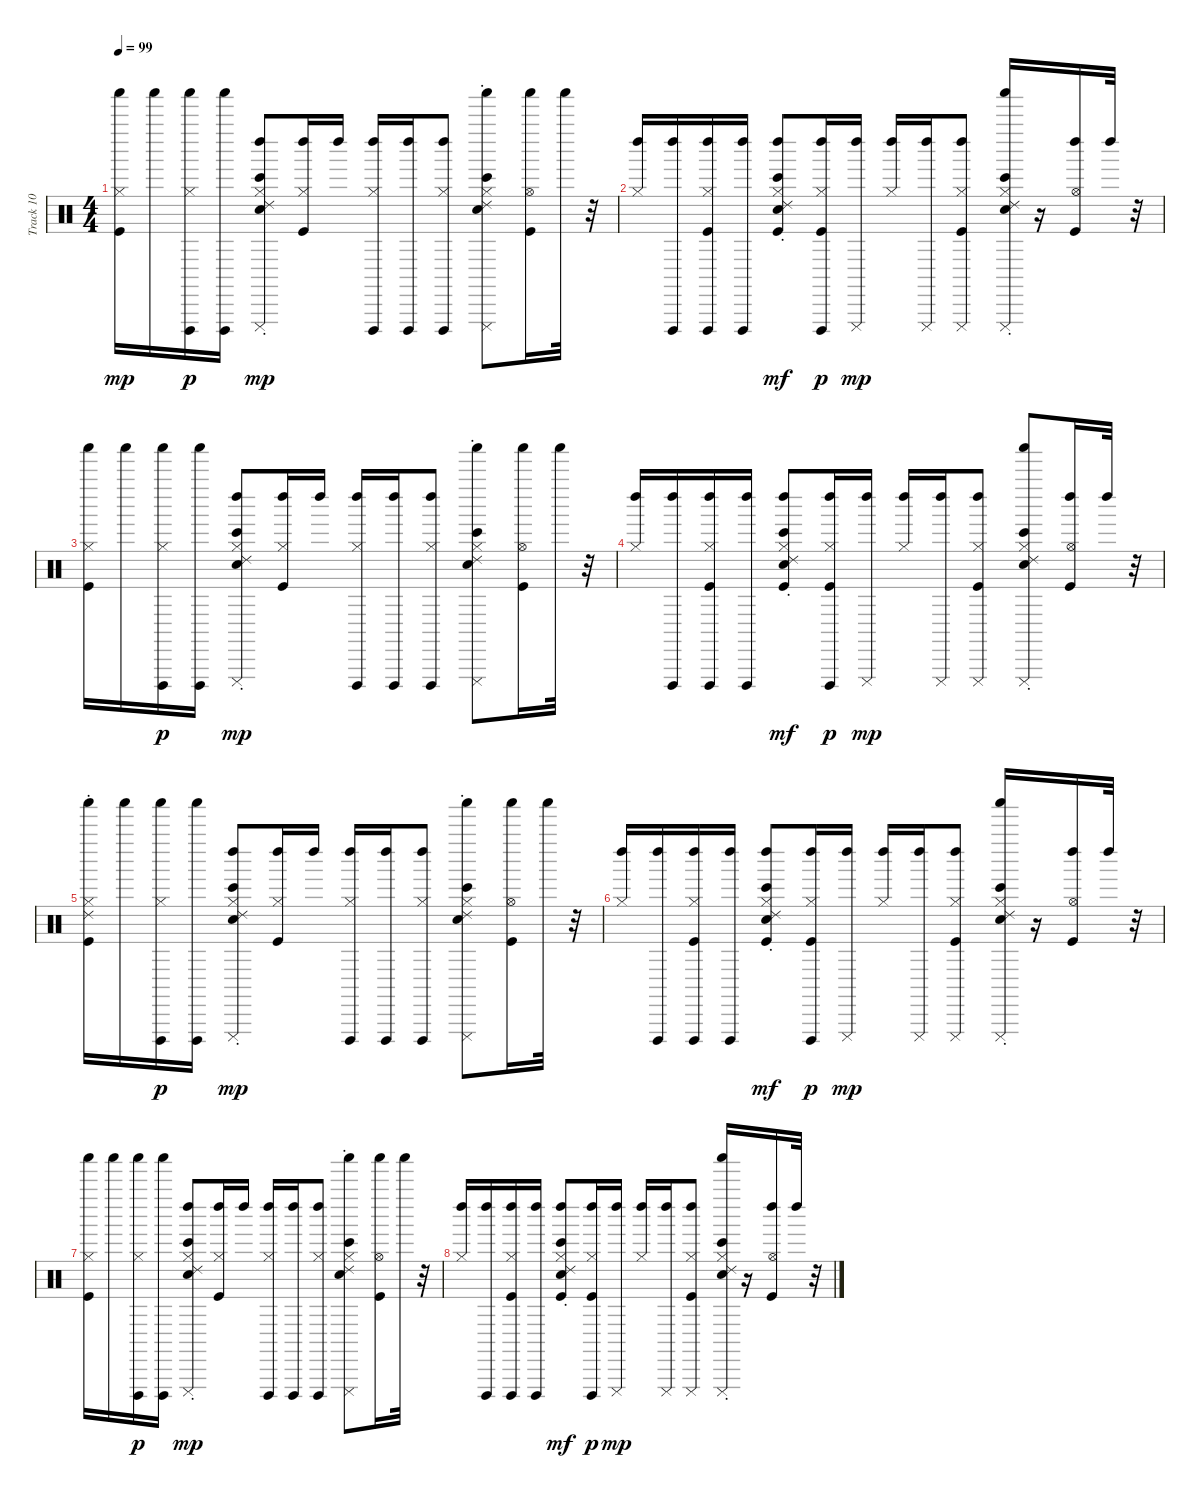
\track ("Track 10" "Track 10") {instrument percussion}
\staff {score}
\articulation defaults
\ts (4 4)
\tempo 99
\clef neutral
\ks c
("Kick (hit)" "Hi-Hat (closed)" "Shaker (hit)").16{dy mp} "Shaker (hit)".16 ("Hi-Hat (closed)" "Cuica (open)" "Shaker (hit)").16{dy p} ("Cuica (open)" "Shaker (hit)").16 ("Bongo High (hit)" "Ride (choke) 2" "Electric Snare (hit)" "Hi-Hat (closed)" "Left Maraca (hit)" "Cuica (mute)").8{dy mp} ("Kick (hit)" "Hi-Hat (closed)" "Left Maraca (hit)").16 "Left Maraca (hit)".16 ("Hi-Hat (closed)" "Left Maraca (hit)" "Cuica (open)").16 ("Cuica (open)" "Left Maraca (hit)").16 ("Hi-Hat (closed)" "Left Maraca (hit)" "Cuica (open)").8 ("Bongo High (hit)" "Ride (choke) 2" "Electric Snare (hit)" "Hi-Hat (closed)" "Cuica (mute)" "Shaker (hit)").8 ("Kick (hit)" "Hi-Hat (open)" "Shaker (hit)").16 "Shaker (hit)".32 r.32 |
("Hi-Hat (closed)" "Left Maraca (hit)").16 ("Cuica (open)" "Left Maraca (hit)").16 ("Kick (hit)" "Hi-Hat (closed)" "Left Maraca (hit)" "Cuica (open)").16 ("Cuica (open)" "Left Maraca (hit)").16 ("Bongo High (hit)" "Ride (choke) 2" "Kick (hit)" "Electric Snare (hit)" "Hi-Hat (closed)" "Left Maraca (hit)").8{dy mf} ("Kick (hit)" "Hi-Hat (closed)" "Left Maraca (hit)" "Cuica (open)").16{dy p} ("Cuica (mute)" "Left Maraca (hit)").16{dy mp} ("Hi-Hat (closed)" "Left Maraca (hit)").16 ("Cuica (mute)" "Left Maraca (hit)").16 ("Kick (hit)" "Hi-Hat (closed)" "Left Maraca (hit)" "Cuica (mute)").8 ("Bongo High (hit)" "Ride (choke) 2" "Electric Snare (hit)" "Hi-Hat (closed)" "Cuica (mute)" "Shaker (hit)").16 r.16 ("Kick (hit)" "Hi-Hat (open)" "Left Maraca (hit)").16 "Left Maraca (hit)".32 r.32 |
("Kick (hit)" "Hi-Hat (closed)" "Shaker (hit)").16 "Shaker (hit)".16 ("Hi-Hat (closed)" "Cuica (open)" "Shaker (hit)").16{dy p} ("Cuica (open)" "Shaker (hit)").16 ("Bongo High (hit)" "Ride (choke) 2" "Electric Snare (hit)" "Hi-Hat (closed)" "Left Maraca (hit)" "Cuica (mute)").8{dy mp} ("Kick (hit)" "Hi-Hat (closed)" "Left Maraca (hit)").16 "Left Maraca (hit)".16 ("Hi-Hat (closed)" "Left Maraca (hit)" "Cuica (open)").16 ("Cuica (open)" "Left Maraca (hit)").16 ("Hi-Hat (closed)" "Left Maraca (hit)" "Cuica (open)").8 ("Bongo High (hit)" "Ride (choke) 2" "Electric Snare (hit)" "Hi-Hat (closed)" "Cuica (mute)" "Shaker (hit)").8 ("Kick (hit)" "Hi-Hat (open)" "Shaker (hit)").16 "Shaker (hit)".32 r.32 |
("Hi-Hat (closed)" "Left Maraca (hit)").16 ("Cuica (open)" "Left Maraca (hit)").16 ("Kick (hit)" "Hi-Hat (closed)" "Left Maraca (hit)" "Cuica (open)").16 ("Cuica (open)" "Left Maraca (hit)").16 ("Bongo High (hit)" "Ride (choke) 2" "Kick (hit)" "Electric Snare (hit)" "Hi-Hat (closed)" "Left Maraca (hit)").8{dy mf} ("Kick (hit)" "Hi-Hat (closed)" "Left Maraca (hit)" "Cuica (open)").16{dy p} ("Cuica (mute)" "Left Maraca (hit)").16{dy mp} ("Hi-Hat (closed)" "Left Maraca (hit)").16 ("Cuica (mute)" "Left Maraca (hit)").16 ("Kick (hit)" "Hi-Hat (closed)" "Left Maraca (hit)" "Cuica (mute)").8 ("Bongo High (hit)" "Ride (choke) 2" "Electric Snare (hit)" "Hi-Hat (closed)" "Cuica (mute)" "Shaker (hit)").8 ("Kick (hit)" "Hi-Hat (open)" "Left Maraca (hit)").16 "Left Maraca (hit)".32 r.32 |
("Ride (choke) 2" "Kick (hit)" "Hi-Hat (closed)" "Shaker (hit)").16 "Shaker (hit)".16 ("Hi-Hat (closed)" "Cuica (open)" "Shaker (hit)").16{dy p} ("Cuica (open)" "Shaker (hit)").16 ("Bongo High (hit)" "Ride (choke) 2" "Electric Snare (hit)" "Hi-Hat (closed)" "Left Maraca (hit)" "Cuica (mute)").8{dy mp} ("Kick (hit)" "Hi-Hat (closed)" "Left Maraca (hit)").16 "Left Maraca (hit)".16 ("Hi-Hat (closed)" "Left Maraca (hit)" "Cuica (open)").16 ("Cuica (open)" "Left Maraca (hit)").16 ("Hi-Hat (closed)" "Left Maraca (hit)" "Cuica (open)").8 ("Bongo High (hit)" "Ride (choke) 2" "Electric Snare (hit)" "Hi-Hat (closed)" "Cuica (mute)" "Shaker (hit)").8 ("Kick (hit)" "Hi-Hat (open)" "Shaker (hit)").16 "Shaker (hit)".32 r.32 |
("Hi-Hat (closed)" "Left Maraca (hit)").16 ("Cuica (open)" "Left Maraca (hit)").16 ("Kick (hit)" "Hi-Hat (closed)" "Left Maraca (hit)" "Cuica (open)").16 ("Cuica (open)" "Left Maraca (hit)").16 ("Bongo High (hit)" "Ride (choke) 2" "Kick (hit)" "Electric Snare (hit)" "Hi-Hat (closed)" "Left Maraca (hit)").8{dy mf} ("Kick (hit)" "Hi-Hat (closed)" "Left Maraca (hit)" "Cuica (open)").16{dy p} ("Cuica (mute)" "Left Maraca (hit)").16{dy mp} ("Hi-Hat (closed)" "Left Maraca (hit)").16 ("Cuica (mute)" "Left Maraca (hit)").16 ("Kick (hit)" "Hi-Hat (closed)" "Left Maraca (hit)" "Cuica (mute)").8 ("Bongo High (hit)" "Ride (choke) 2" "Electric Snare (hit)" "Hi-Hat (closed)" "Cuica (mute)" "Shaker (hit)").16 r.16 ("Kick (hit)" "Hi-Hat (open)" "Left Maraca (hit)").16 "Left Maraca (hit)".32 r.32 |
("Kick (hit)" "Hi-Hat (closed)" "Shaker (hit)").16 "Shaker (hit)".16 ("Hi-Hat (closed)" "Cuica (open)" "Shaker (hit)").16{dy p} ("Cuica (open)" "Shaker (hit)").16 ("Bongo High (hit)" "Ride (choke) 2" "Electric Snare (hit)" "Hi-Hat (closed)" "Left Maraca (hit)" "Cuica (mute)").8{dy mp} ("Kick (hit)" "Hi-Hat (closed)" "Left Maraca (hit)").16 "Left Maraca (hit)".16 ("Hi-Hat (closed)" "Left Maraca (hit)" "Cuica (open)").16 ("Cuica (open)" "Left Maraca (hit)").16 ("Hi-Hat (closed)" "Left Maraca (hit)" "Cuica (open)").8 ("Bongo High (hit)" "Ride (choke) 2" "Electric Snare (hit)" "Hi-Hat (closed)" "Cuica (mute)" "Shaker (hit)").8 ("Kick (hit)" "Hi-Hat (open)" "Shaker (hit)").16 "Shaker (hit)".32 r.32 |
("Hi-Hat (closed)" "Left Maraca (hit)").16 ("Cuica (open)" "Left Maraca (hit)").16 ("Kick (hit)" "Hi-Hat (closed)" "Left Maraca (hit)" "Cuica (open)").16 ("Cuica (open)" "Left Maraca (hit)").16 ("Bongo High (hit)" "Ride (choke) 2" "Kick (hit)" "Electric Snare (hit)" "Hi-Hat (closed)" "Left Maraca (hit)").8{dy mf} ("Kick (hit)" "Hi-Hat (closed)" "Left Maraca (hit)" "Cuica (open)").16{dy p} ("Cuica (mute)" "Left Maraca (hit)").16{dy mp} ("Hi-Hat (closed)" "Left Maraca (hit)").16 ("Cuica (mute)" "Left Maraca (hit)").16 ("Kick (hit)" "Hi-Hat (closed)" "Left Maraca (hit)" "Cuica (mute)").8 ("Bongo High (hit)" "Ride (choke) 2" "Electric Snare (hit)" "Hi-Hat (closed)" "Cuica (mute)" "Shaker (hit)").16 r.16 ("Kick (hit)" "Hi-Hat (open)" "Left Maraca (hit)").16 "Left Maraca (hit)".32 r.32
